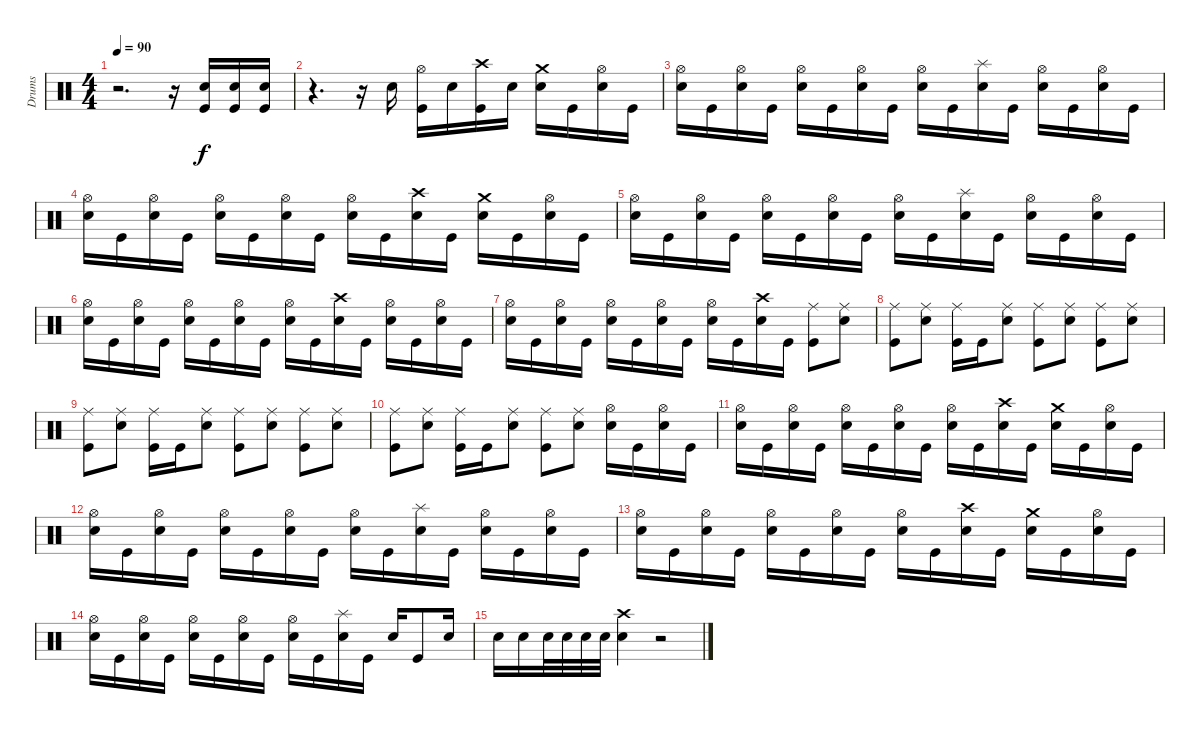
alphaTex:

\track ("Drums" "Drums") {instrument percussion}
\staff {score}
\articulation defaults
\ts (4 4)
\tempo 90
\clef neutral
\ks c
r.2{d dy f} r.16 ("Electric Snare (hit)" "Kick (hit)").16 ("Electric Snare (hit)" "Kick (hit)").16 ("Electric Snare (hit)" "Kick (hit)").16 |
r.4{d} r.16 "Electric Snare (hit)".16 ("Hi-Hat (open)" "Kick (hit)").16 "Electric Snare (hit)".16 ("Crash high (hit)" "Kick (hit)").16 "Electric Snare (hit)".16 ("Crash medium (hit)" "Electric Snare (hit)").16 "Kick (hit)".16 ("Hi-Hat (open)" "Electric Snare (hit)").16 "Kick (hit)".16 |
("Hi-Hat (open)" "Electric Snare (hit)").16 "Kick (hit)".16 ("Hi-Hat (open)" "Electric Snare (hit)").16 "Kick (hit)".16 ("Hi-Hat (open)" "Electric Snare (hit)").16 "Kick (hit)".16 ("Hi-Hat (open)" "Electric Snare (hit)").16 "Kick (hit)".16 ("Hi-Hat (open)" "Electric Snare (hit)").16 "Kick (hit)".16 ("Splash (hit)" "Electric Snare (hit)").16 "Kick (hit)".16 ("Hi-Hat (open)" "Electric Snare (hit)").16 "Kick (hit)".16 ("Hi-Hat (open)" "Electric Snare (hit)").16 "Kick (hit)".16 |
("Hi-Hat (open)" "Electric Snare (hit)").16 "Kick (hit)".16 ("Hi-Hat (open)" "Electric Snare (hit)").16 "Kick (hit)".16 ("Hi-Hat (open)" "Electric Snare (hit)").16 "Kick (hit)".16 ("Hi-Hat (open)" "Electric Snare (hit)").16 "Kick (hit)".16 ("Hi-Hat (open)" "Electric Snare (hit)").16 "Kick (hit)".16 ("Crash high (hit)" "Electric Snare (hit)").16 "Kick (hit)".16 ("Crash medium (hit)" "Electric Snare (hit)").16 "Kick (hit)".16 ("Hi-Hat (open)" "Electric Snare (hit)").16 "Kick (hit)".16 |
("Hi-Hat (open)" "Electric Snare (hit)").16 "Kick (hit)".16 ("Hi-Hat (open)" "Electric Snare (hit)").16 "Kick (hit)".16 ("Hi-Hat (open)" "Electric Snare (hit)").16 "Kick (hit)".16 ("Hi-Hat (open)" "Electric Snare (hit)").16 "Kick (hit)".16 ("Hi-Hat (open)" "Electric Snare (hit)").16 "Kick (hit)".16 ("Splash (hit)" "Electric Snare (hit)").16 "Kick (hit)".16 ("Hi-Hat (open)" "Electric Snare (hit)").16 "Kick (hit)".16 ("Hi-Hat (open)" "Electric Snare (hit)").16 "Kick (hit)".16 |
("Hi-Hat (open)" "Electric Snare (hit)").16 "Kick (hit)".16 ("Hi-Hat (open)" "Electric Snare (hit)").16 "Kick (hit)".16 ("Hi-Hat (open)" "Electric Snare (hit)").16 "Kick (hit)".16 ("Hi-Hat (open)" "Electric Snare (hit)").16 "Kick (hit)".16 ("Hi-Hat (open)" "Electric Snare (hit)").16 "Kick (hit)".16 ("Crash high (hit)" "Electric Snare (hit)").16 "Kick (hit)".16 ("Hi-Hat (open)" "Electric Snare (hit)").16 "Kick (hit)".16 ("Hi-Hat (open)" "Electric Snare (hit)").16 "Kick (hit)".16 |
("Hi-Hat (open)" "Electric Snare (hit)").16 "Kick (hit)".16 ("Hi-Hat (open)" "Electric Snare (hit)").16 "Kick (hit)".16 ("Hi-Hat (open)" "Electric Snare (hit)").16 "Kick (hit)".16 ("Hi-Hat (open)" "Electric Snare (hit)").16 "Kick (hit)".16 ("Hi-Hat (open)" "Electric Snare (hit)").16 "Kick (hit)".16 ("Crash high (hit)" "Electric Snare (hit)").16 "Kick (hit)".16 ("Ride (middle)" "Kick (hit)").8 ("Ride (middle)" "Electric Snare (hit)").8 |
("Ride (middle)" "Kick (hit)").8 ("Ride (middle)" "Electric Snare (hit)").8 ("Ride (middle)" "Kick (hit)").16 "Kick (hit)".16 ("Ride (middle)" "Electric Snare (hit)").8 ("Ride (middle)" "Kick (hit)").8 ("Ride (middle)" "Electric Snare (hit)").8 ("Ride (middle)" "Kick (hit)").8 ("Ride (middle)" "Electric Snare (hit)").8 |
("Ride (middle)" "Kick (hit)").8 ("Ride (middle)" "Electric Snare (hit)").8 ("Ride (middle)" "Kick (hit)").16 "Kick (hit)".16 ("Ride (middle)" "Electric Snare (hit)").8 ("Ride (middle)" "Kick (hit)").8 ("Ride (middle)" "Electric Snare (hit)").8 ("Ride (middle)" "Kick (hit)").8 ("Ride (middle)" "Electric Snare (hit)").8 |
("Ride (middle)" "Kick (hit)").8 ("Ride (middle)" "Electric Snare (hit)").8 ("Ride (middle)" "Kick (hit)").16 "Kick (hit)".16 ("Ride (middle)" "Electric Snare (hit)").8 ("Ride (middle)" "Kick (hit)").8 ("Ride (middle)" "Electric Snare (hit)").8 ("Hi-Hat (open)" "Electric Snare (hit)").16 "Kick (hit)".16 ("Hi-Hat (open)" "Electric Snare (hit)").16 "Kick (hit)".16 |
("Hi-Hat (open)" "Electric Snare (hit)").16 "Kick (hit)".16 ("Hi-Hat (open)" "Electric Snare (hit)").16 "Kick (hit)".16 ("Hi-Hat (open)" "Electric Snare (hit)").16 "Kick (hit)".16 ("Hi-Hat (open)" "Electric Snare (hit)").16 "Kick (hit)".16 ("Hi-Hat (open)" "Electric Snare (hit)").16 "Kick (hit)".16 ("Crash high (hit)" "Electric Snare (hit)").16 "Kick (hit)".16 ("Crash medium (hit)" "Electric Snare (hit)").16 "Kick (hit)".16 ("Hi-Hat (open)" "Electric Snare (hit)").16 "Kick (hit)".16 |
("Hi-Hat (open)" "Electric Snare (hit)").16 "Kick (hit)".16 ("Hi-Hat (open)" "Electric Snare (hit)").16 "Kick (hit)".16 ("Hi-Hat (open)" "Electric Snare (hit)").16 "Kick (hit)".16 ("Hi-Hat (open)" "Electric Snare (hit)").16 "Kick (hit)".16 ("Hi-Hat (open)" "Electric Snare (hit)").16 "Kick (hit)".16 ("Splash (hit)" "Electric Snare (hit)").16 "Kick (hit)".16 ("Hi-Hat (open)" "Electric Snare (hit)").16 "Kick (hit)".16 ("Hi-Hat (open)" "Electric Snare (hit)").16 "Kick (hit)".16 |
("Hi-Hat (open)" "Electric Snare (hit)").16 "Kick (hit)".16 ("Hi-Hat (open)" "Electric Snare (hit)").16 "Kick (hit)".16 ("Hi-Hat (open)" "Electric Snare (hit)").16 "Kick (hit)".16 ("Hi-Hat (open)" "Electric Snare (hit)").16 "Kick (hit)".16 ("Hi-Hat (open)" "Electric Snare (hit)").16 "Kick (hit)".16 ("Crash high (hit)" "Electric Snare (hit)").16 "Kick (hit)".16 ("Crash medium (hit)" "Electric Snare (hit)").16 "Kick (hit)".16 ("Hi-Hat (open)" "Electric Snare (hit)").16 "Kick (hit)".16 |
("Hi-Hat (open)" "Electric Snare (hit)").16 "Kick (hit)".16 ("Hi-Hat (open)" "Electric Snare (hit)").16 "Kick (hit)".16 ("Hi-Hat (open)" "Electric Snare (hit)").16 "Kick (hit)".16 ("Hi-Hat (open)" "Electric Snare (hit)").16 "Kick (hit)".16 ("Hi-Hat (open)" "Electric Snare (hit)").16 "Kick (hit)".16 ("Splash (hit)" "Electric Snare (hit)").16 "Kick (hit)".16 "Electric Snare (hit)".16 "Kick (hit)".8 "Electric Snare (hit)".16 |
"Electric Snare (hit)".16 "Electric Snare (hit)".16 "Electric Snare (hit)".32 "Electric Snare (hit)".32 "Electric Snare (hit)".32 "Electric Snare (hit)".32 ("Crash high (hit)" "Electric Snare (hit)").4 r.2
